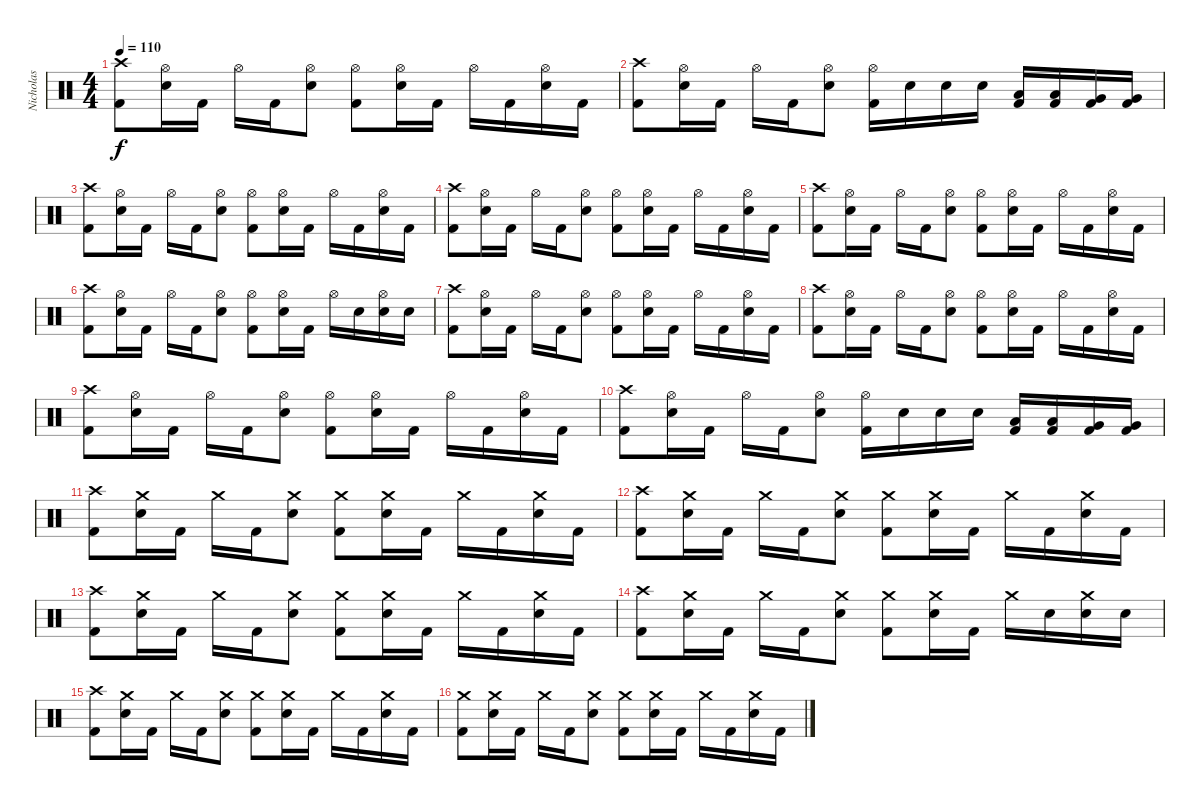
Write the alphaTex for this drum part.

\track ("Nicholas" "Nicholas") {instrument percussion}
\staff {score}
\articulation defaults
\ts (4 4)
\tempo 110
\clef neutral
\ks c
("Crash high (hit)" "Kick (hit) 2").8{dy f} ("Hi-Hat (open)" "Snare (hit) 2").16 "Kick (hit) 2".16 "Hi-Hat (open)".16 "Kick (hit) 2".16 ("Hi-Hat (open)" "Snare (hit) 2").8 ("Hi-Hat (open)" "Kick (hit) 2").8 ("Hi-Hat (open)" "Snare (hit) 2").16 "Kick (hit) 2".16 "Hi-Hat (open)".16 "Kick (hit) 2".16 ("Hi-Hat (open)" "Snare (hit) 2").16 "Kick (hit) 2".16 |
("Crash high (hit)" "Kick (hit) 2").8 ("Hi-Hat (open)" "Snare (hit) 2").16 "Kick (hit) 2".16 "Hi-Hat (open)".16 "Kick (hit) 2".16 ("Hi-Hat (open)" "Snare (hit) 2").8 ("Hi-Hat (open)" "Kick (hit) 2").16 "Snare (hit) 2".16 "Snare (hit) 2".16 "Snare (hit) 2".16 ("Kick (hit) 2" "Low Tom (hit)").16 ("Kick (hit) 2" "Low Tom (hit)").16 ("Kick (hit) 2" "Very Low Tom (hit)").16 ("Kick (hit) 2" "Very Low Tom (hit)").16 |
("Crash high (hit)" "Kick (hit) 2").8 ("Hi-Hat (open)" "Snare (hit) 2").16 "Kick (hit) 2".16 "Hi-Hat (open)".16 "Kick (hit) 2".16 ("Hi-Hat (open)" "Snare (hit) 2").8 ("Hi-Hat (open)" "Kick (hit) 2").8 ("Hi-Hat (open)" "Snare (hit) 2").16 "Kick (hit) 2".16 "Hi-Hat (open)".16 "Kick (hit) 2".16 ("Hi-Hat (open)" "Snare (hit) 2").16 "Kick (hit) 2".16 |
("Crash high (hit)" "Kick (hit) 2").8 ("Hi-Hat (open)" "Snare (hit) 2").16 "Kick (hit) 2".16 "Hi-Hat (open)".16 "Kick (hit) 2".16 ("Hi-Hat (open)" "Snare (hit) 2").8 ("Hi-Hat (open)" "Kick (hit) 2").8 ("Hi-Hat (open)" "Snare (hit) 2").16 "Kick (hit) 2".16 "Hi-Hat (open)".16 "Kick (hit) 2".16 ("Hi-Hat (open)" "Snare (hit) 2").16 "Kick (hit) 2".16 |
("Crash high (hit)" "Kick (hit) 2").8 ("Hi-Hat (open)" "Snare (hit) 2").16 "Kick (hit) 2".16 "Hi-Hat (open)".16 "Kick (hit) 2".16 ("Hi-Hat (open)" "Snare (hit) 2").8 ("Hi-Hat (open)" "Kick (hit) 2").8 ("Hi-Hat (open)" "Snare (hit) 2").16 "Kick (hit) 2".16 "Hi-Hat (open)".16 "Kick (hit) 2".16 ("Hi-Hat (open)" "Snare (hit) 2").16 "Kick (hit) 2".16 |
("Crash high (hit)" "Kick (hit) 2").8 ("Hi-Hat (open)" "Snare (hit) 2").16 "Kick (hit) 2".16 "Hi-Hat (open)".16 "Kick (hit) 2".16 ("Hi-Hat (open)" "Snare (hit) 2").8 ("Hi-Hat (open)" "Kick (hit) 2").8 ("Hi-Hat (open)" "Snare (hit) 2").16 "Kick (hit) 2".16 "Hi-Hat (open)".16 "Snare (hit) 2".16 ("Hi-Hat (open)" "Snare (hit) 2").16 "Snare (hit) 2".16 |
("Crash high (hit)" "Kick (hit) 2").8 ("Hi-Hat (open)" "Snare (hit) 2").16 "Kick (hit) 2".16 "Hi-Hat (open)".16 "Kick (hit) 2".16 ("Hi-Hat (open)" "Snare (hit) 2").8 ("Hi-Hat (open)" "Kick (hit) 2").8 ("Hi-Hat (open)" "Snare (hit) 2").16 "Kick (hit) 2".16 "Hi-Hat (open)".16 "Kick (hit) 2".16 ("Hi-Hat (open)" "Snare (hit) 2").16 "Kick (hit) 2".16 |
("Crash high (hit)" "Kick (hit) 2").8 ("Hi-Hat (open)" "Snare (hit) 2").16 "Kick (hit) 2".16 "Hi-Hat (open)".16 "Kick (hit) 2".16 ("Hi-Hat (open)" "Snare (hit) 2").8 ("Hi-Hat (open)" "Kick (hit) 2").8 ("Hi-Hat (open)" "Snare (hit) 2").16 "Kick (hit) 2".16 "Hi-Hat (open)".16 "Kick (hit) 2".16 ("Hi-Hat (open)" "Snare (hit) 2").16 "Kick (hit) 2".16 |
("Crash high (hit)" "Kick (hit) 2").8 ("Hi-Hat (open)" "Snare (hit) 2").16 "Kick (hit) 2".16 "Hi-Hat (open)".16 "Kick (hit) 2".16 ("Hi-Hat (open)" "Snare (hit) 2").8 ("Hi-Hat (open)" "Kick (hit) 2").8 ("Hi-Hat (open)" "Snare (hit) 2").16 "Kick (hit) 2".16 "Hi-Hat (open)".16 "Kick (hit) 2".16 ("Hi-Hat (open)" "Snare (hit) 2").16 "Kick (hit) 2".16 |
("Crash high (hit)" "Kick (hit) 2").8 ("Hi-Hat (open)" "Snare (hit) 2").16 "Kick (hit) 2".16 "Hi-Hat (open)".16 "Kick (hit) 2".16 ("Hi-Hat (open)" "Snare (hit) 2").8 ("Hi-Hat (open)" "Kick (hit) 2").16 "Snare (hit) 2".16 "Snare (hit) 2".16 "Snare (hit) 2".16 ("Kick (hit) 2" "Low Tom (hit)").16 ("Kick (hit) 2" "Low Tom (hit)").16 ("Kick (hit) 2" "Very Low Tom (hit)").16 ("Kick (hit) 2" "Very Low Tom (hit)").16 |
("Crash high (hit)" "Kick (hit) 2").8 ("Crash medium (hit)" "Snare (hit) 2").16 "Kick (hit) 2".16 "Crash medium (hit)".16 "Kick (hit) 2".16 ("Crash medium (hit)" "Snare (hit) 2").8 ("Crash medium (hit)" "Kick (hit) 2").8 ("Crash medium (hit)" "Snare (hit) 2").16 "Kick (hit) 2".16 "Crash medium (hit)".16 "Kick (hit) 2".16 ("Crash medium (hit)" "Snare (hit) 2").16 "Kick (hit) 2".16 |
("Crash high (hit)" "Kick (hit) 2").8 ("Crash medium (hit)" "Snare (hit) 2").16 "Kick (hit) 2".16 "Crash medium (hit)".16 "Kick (hit) 2".16 ("Crash medium (hit)" "Snare (hit) 2").8 ("Crash medium (hit)" "Kick (hit) 2").8 ("Crash medium (hit)" "Snare (hit) 2").16 "Kick (hit) 2".16 "Crash medium (hit)".16 "Kick (hit) 2".16 ("Crash medium (hit)" "Snare (hit) 2").16 "Kick (hit) 2".16 |
("Crash high (hit)" "Kick (hit) 2").8 ("Crash medium (hit)" "Snare (hit) 2").16 "Kick (hit) 2".16 "Crash medium (hit)".16 "Kick (hit) 2".16 ("Crash medium (hit)" "Snare (hit) 2").8 ("Crash medium (hit)" "Kick (hit) 2").8 ("Crash medium (hit)" "Snare (hit) 2").16 "Kick (hit) 2".16 "Crash medium (hit)".16 "Kick (hit) 2".16 ("Crash medium (hit)" "Snare (hit) 2").16 "Kick (hit) 2".16 |
("Crash high (hit)" "Kick (hit) 2").8 ("Crash medium (hit)" "Snare (hit) 2").16 "Kick (hit) 2".16 "Crash medium (hit)".16 "Kick (hit) 2".16 ("Crash medium (hit)" "Snare (hit) 2").8 ("Crash medium (hit)" "Kick (hit) 2").8 ("Crash medium (hit)" "Snare (hit) 2").16 "Kick (hit) 2".16 "Crash medium (hit)".16 "Snare (hit) 2".16 ("Crash medium (hit)" "Snare (hit) 2").16 "Snare (hit) 2".16 |
("Crash high (hit)" "Kick (hit) 2").8 ("Crash medium (hit)" "Snare (hit) 2").16 "Kick (hit) 2".16 "Crash medium (hit)".16 "Kick (hit) 2".16 ("Crash medium (hit)" "Snare (hit) 2").8 ("Crash medium (hit)" "Kick (hit) 2").8 ("Crash medium (hit)" "Snare (hit) 2").16 "Kick (hit) 2".16 "Crash medium (hit)".16 "Kick (hit) 2".16 ("Crash medium (hit)" "Snare (hit) 2").16 "Kick (hit) 2".16 |
("Crash medium (hit)" "Kick (hit) 2").8 ("Crash medium (hit)" "Snare (hit) 2").16 "Kick (hit) 2".16 "Crash medium (hit)".16 "Kick (hit) 2".16 ("Crash medium (hit)" "Snare (hit) 2").8 ("Crash medium (hit)" "Kick (hit) 2").8 ("Crash medium (hit)" "Snare (hit) 2").16 "Kick (hit) 2".16 "Crash medium (hit)".16 "Kick (hit) 2".16 ("Crash medium (hit)" "Snare (hit) 2").16 "Kick (hit) 2".16
